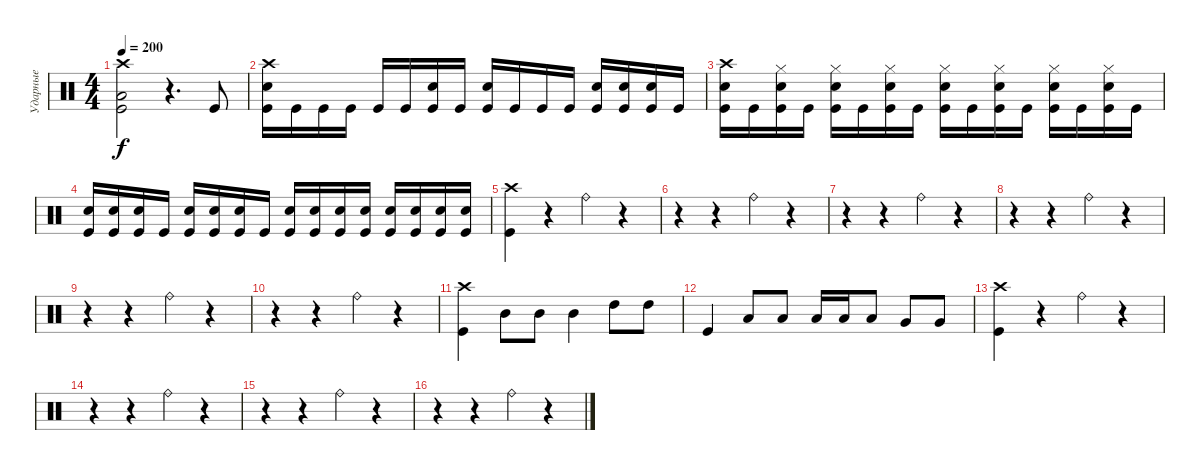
\track ("Ударные" "Ударные") {instrument percussion}
\staff {score}
\articulation defaults
\ts (4 4)
\tempo 200
\clef neutral
\ks c
("Crash high (hit)" "Low Tom (hit)" "Kick (hit)").2{dy f} r.4{d} "Kick (hit)".8 |
("Crash high (hit)" "Electric Snare (hit)" "Kick (hit)").16 "Kick (hit)".16 "Kick (hit)".16 "Kick (hit)".16 "Kick (hit)".16 "Kick (hit)".16 ("Electric Snare (hit)" "Kick (hit)").16 "Kick (hit)".16 ("Electric Snare (hit)" "Kick (hit)").16 "Kick (hit)".16 "Kick (hit)".16 "Kick (hit)".16 ("Electric Snare (hit)" "Kick (hit)").16 ("Electric Snare (hit)" "Kick (hit)").16 ("Electric Snare (hit)" "Kick (hit)").16 "Kick (hit)".16 |
("Crash high (hit)" "Electric Snare (hit)" "Kick (hit)").16 "Kick (hit)".16 ("Hi-Hat (closed)" "Electric Snare (hit)" "Kick (hit)").16 "Kick (hit)".16 ("Hi-Hat (closed)" "Electric Snare (hit)" "Kick (hit)").16 "Kick (hit)".16 ("Hi-Hat (closed)" "Electric Snare (hit)" "Kick (hit)").16 "Kick (hit)".16 ("Hi-Hat (closed)" "Electric Snare (hit)" "Kick (hit)").16 "Kick (hit)".16 ("Hi-Hat (closed)" "Electric Snare (hit)" "Kick (hit)").16 "Kick (hit)".16 ("Hi-Hat (closed)" "Electric Snare (hit)" "Kick (hit)").16 "Kick (hit)".16 ("Hi-Hat (closed)" "Electric Snare (hit)" "Kick (hit)").16 "Kick (hit)".16 |
("Electric Snare (hit)" "Kick (hit)").16 ("Electric Snare (hit)" "Kick (hit)").16 ("Electric Snare (hit)" "Kick (hit)").16 "Kick (hit)".16 ("Electric Snare (hit)" "Kick (hit)").16 ("Electric Snare (hit)" "Kick (hit)").16 ("Electric Snare (hit)" "Kick (hit)").16 "Kick (hit)".16 ("Electric Snare (hit)" "Kick (hit)").16 ("Electric Snare (hit)" "Kick (hit)").16 ("Electric Snare (hit)" "Kick (hit)").16 ("Electric Snare (hit)" "Kick (hit)").16 ("Electric Snare (hit)" "Kick (hit)").16 ("Electric Snare (hit)" "Kick (hit)").16 ("Electric Snare (hit)" "Kick (hit)").16 ("Electric Snare (hit)" "Kick (hit)").16 |
("Crash high (hit)" "Kick (hit)").4 r.4 "Ride (bell)".4 r.4 |
r.4 r.4 "Ride (bell)".4 r.4 |
r.4 r.4 "Ride (bell)".4 r.4 |
r.4 r.4 "Ride (bell)".4 r.4 |
r.4 r.4 "Ride (bell)".4 r.4 |
r.4 r.4 "Ride (bell)".4 r.4 |
("Crash high (hit)" "Kick (hit)").4 "Mid Tom (hit)".8 "Mid Tom (hit)".8 "Mid Tom (hit)".4 "High Tom (hit)".8 "High Tom (hit)".8 |
"Kick (hit)".4 "Low Tom (hit)".8 "Low Tom (hit)".8 "Low Tom (hit)".16 "Low Tom (hit)".16 "Low Tom (hit)".8 "Very Low Tom (hit)".8 "Very Low Tom (hit)".8 |
("Crash high (hit)" "Kick (hit)").4 r.4 "Ride (bell)".4 r.4 |
r.4 r.4 "Ride (bell)".4 r.4 |
r.4 r.4 "Ride (bell)".4 r.4 |
r.4 r.4 "Ride (bell)".4 r.4
